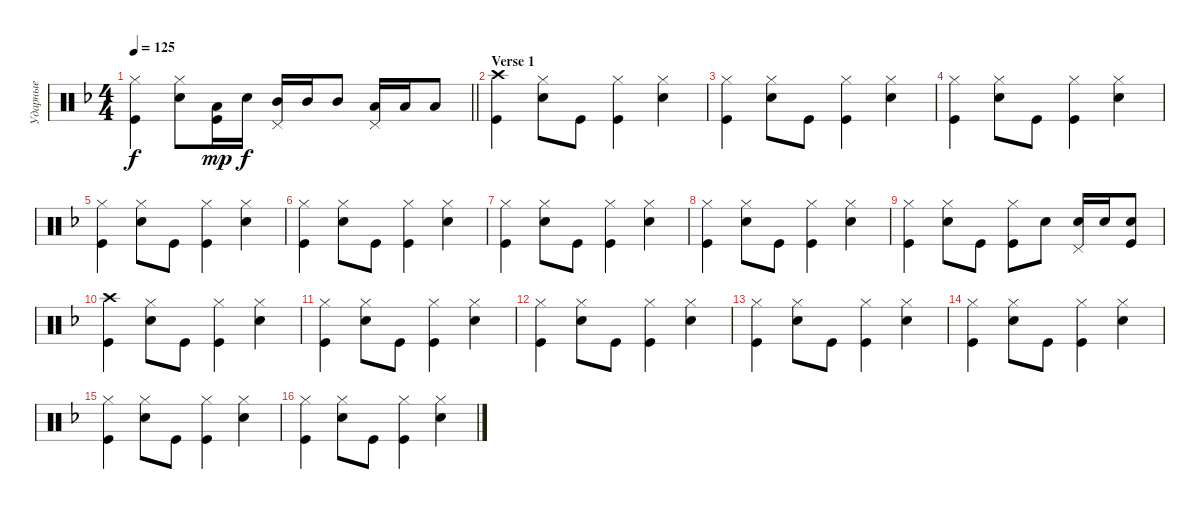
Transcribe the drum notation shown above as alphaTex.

\track ("Ударные" "Ударные") {instrument percussion}
\staff {score}
\articulation defaults
\ts (4 4)
\tempo 125
\clef neutral
\barLineRight lightlight
\ks dminor
("Hi-Hat (closed)" "Kick (hit)").4{dy f} ("Hi-Hat (closed)" "Snare (hit) 2").8 ("Low Floor Tom (hit)" "Kick (hit)").16{dy mp} "Snare (hit) 2".16{dy f} ("Mid Tom (hit)" "Pedal Hi-Hat (hit)").16 "Mid Tom (hit)".16 "Mid Tom (hit)".8 ("Pedal Hi-Hat (hit)" "Low Tom (hit)").16 "Low Tom (hit)".16 "Low Tom (hit)".8 |
\section ("" "Verse 1")
("Crash high (hit)" "Kick (hit)").4 ("Hi-Hat (closed)" "Snare (hit) 2").8 "Kick (hit)".8 ("Hi-Hat (closed)" "Kick (hit)").4 ("Hi-Hat (closed)" "Snare (hit) 2").4 |
("Hi-Hat (closed)" "Kick (hit)").4 ("Hi-Hat (closed)" "Snare (hit) 2").8 "Kick (hit)".8 ("Hi-Hat (closed)" "Kick (hit)").4 ("Hi-Hat (closed)" "Snare (hit) 2").4 |
("Hi-Hat (closed)" "Kick (hit)").4 ("Hi-Hat (closed)" "Snare (hit) 2").8 "Kick (hit)".8 ("Hi-Hat (closed)" "Kick (hit)").4 ("Hi-Hat (closed)" "Snare (hit) 2").4 |
("Hi-Hat (closed)" "Kick (hit)").4 ("Hi-Hat (closed)" "Snare (hit) 2").8 "Kick (hit)".8 ("Hi-Hat (closed)" "Kick (hit)").4 ("Hi-Hat (closed)" "Snare (hit) 2").4 |
("Hi-Hat (closed)" "Kick (hit)").4 ("Hi-Hat (closed)" "Snare (hit) 2").8 "Kick (hit)".8 ("Hi-Hat (closed)" "Kick (hit)").4 ("Hi-Hat (closed)" "Snare (hit) 2").4 |
("Hi-Hat (closed)" "Kick (hit)").4 ("Hi-Hat (closed)" "Snare (hit) 2").8 "Kick (hit)".8 ("Hi-Hat (closed)" "Kick (hit)").4 ("Hi-Hat (closed)" "Snare (hit) 2").4 |
("Hi-Hat (closed)" "Kick (hit)").4 ("Hi-Hat (closed)" "Snare (hit) 2").8 "Kick (hit)".8 ("Hi-Hat (closed)" "Kick (hit)").4 ("Hi-Hat (closed)" "Snare (hit) 2").4 |
("Hi-Hat (closed)" "Kick (hit)").4 ("Hi-Hat (closed)" "Snare (hit) 2").8 "Kick (hit)".8 ("Hi-Hat (closed)" "Kick (hit)").8 "Snare (hit) 2".8 ("Snare (hit) 2" "Pedal Hi-Hat (hit)").16 "Snare (hit) 2".16 ("Snare (hit) 2" "Kick (hit)").8 |
("Crash high (hit)" "Kick (hit)").4 ("Hi-Hat (closed)" "Snare (hit) 2").8 "Kick (hit)".8 ("Hi-Hat (closed)" "Kick (hit)").4 ("Hi-Hat (closed)" "Snare (hit) 2").4 |
("Hi-Hat (closed)" "Kick (hit)").4 ("Hi-Hat (closed)" "Snare (hit) 2").8 "Kick (hit)".8 ("Hi-Hat (closed)" "Kick (hit)").4 ("Hi-Hat (closed)" "Snare (hit) 2").4 |
("Hi-Hat (closed)" "Kick (hit)").4 ("Hi-Hat (closed)" "Snare (hit) 2").8 "Kick (hit)".8 ("Hi-Hat (closed)" "Kick (hit)").4 ("Hi-Hat (closed)" "Snare (hit) 2").4 |
("Hi-Hat (closed)" "Kick (hit)").4 ("Hi-Hat (closed)" "Snare (hit) 2").8 "Kick (hit)".8 ("Hi-Hat (closed)" "Kick (hit)").4 ("Hi-Hat (closed)" "Snare (hit) 2").4 |
("Hi-Hat (closed)" "Kick (hit)").4 ("Hi-Hat (closed)" "Snare (hit) 2").8 "Kick (hit)".8 ("Hi-Hat (closed)" "Kick (hit)").4 ("Hi-Hat (closed)" "Snare (hit) 2").4 |
("Hi-Hat (closed)" "Kick (hit)").4 ("Hi-Hat (closed)" "Snare (hit) 2").8 "Kick (hit)".8 ("Hi-Hat (closed)" "Kick (hit)").4 ("Hi-Hat (closed)" "Snare (hit) 2").4 |
("Hi-Hat (closed)" "Kick (hit)").4 ("Hi-Hat (closed)" "Snare (hit) 2").8 "Kick (hit)".8 ("Hi-Hat (closed)" "Kick (hit)").4 ("Hi-Hat (closed)" "Snare (hit) 2").4
